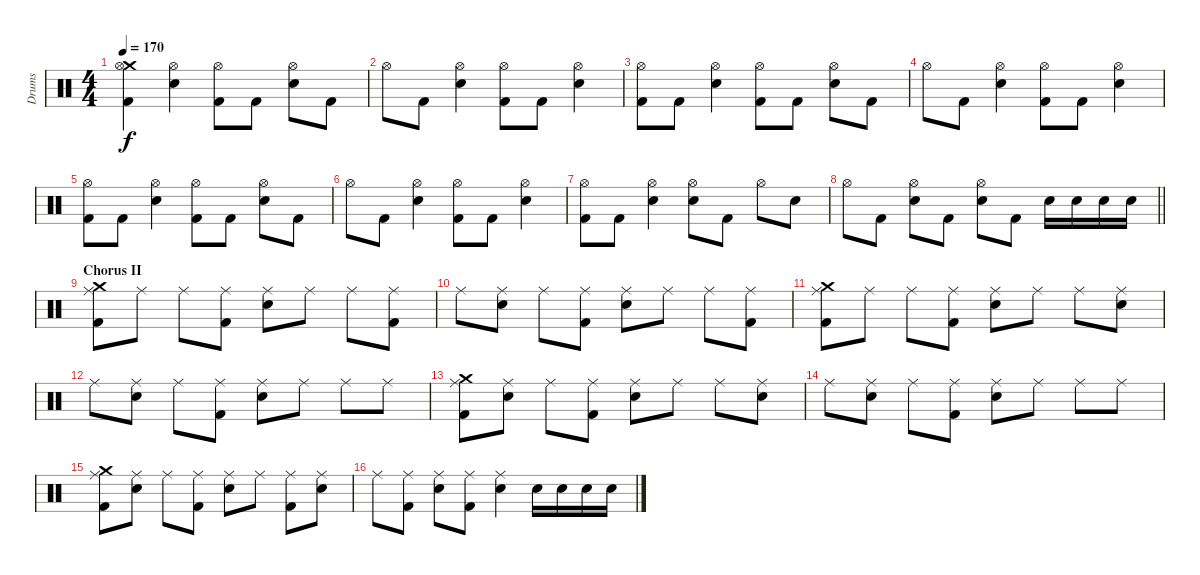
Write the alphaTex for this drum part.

\track ("Drums" "Drums") {instrument percussion}
\staff {score}
\articulation defaults
\ts (4 4)
\tempo 170
\clef neutral
\ks c
("Crash medium (hit)" "Hi-Hat (open)" "Kick (hit) 2").4{dy f} ("Hi-Hat (open)" "Electric Snare (hit)").4 ("Hi-Hat (open)" "Kick (hit) 2").8 "Kick (hit) 2".8 ("Hi-Hat (open)" "Electric Snare (hit)").8 "Kick (hit) 2".8 |
"Hi-Hat (open)".8 "Kick (hit) 2".8 ("Hi-Hat (open)" "Electric Snare (hit)").4 ("Hi-Hat (open)" "Kick (hit) 2").8 "Kick (hit) 2".8 ("Hi-Hat (open)" "Electric Snare (hit)").4 |
("Hi-Hat (open)" "Kick (hit) 2").8 "Kick (hit) 2".8 ("Hi-Hat (open)" "Electric Snare (hit)").4 ("Hi-Hat (open)" "Kick (hit) 2").8 "Kick (hit) 2".8 ("Hi-Hat (open)" "Electric Snare (hit)").8 "Kick (hit) 2".8 |
"Hi-Hat (open)".8 "Kick (hit) 2".8 ("Hi-Hat (open)" "Electric Snare (hit)").4 ("Hi-Hat (open)" "Kick (hit) 2").8 "Kick (hit) 2".8 ("Hi-Hat (open)" "Electric Snare (hit)").4 |
("Hi-Hat (open)" "Kick (hit) 2").8 "Kick (hit) 2".8 ("Hi-Hat (open)" "Electric Snare (hit)").4 ("Hi-Hat (open)" "Kick (hit) 2").8 "Kick (hit) 2".8 ("Hi-Hat (open)" "Electric Snare (hit)").8 "Kick (hit) 2".8 |
"Hi-Hat (open)".8 "Kick (hit) 2".8 ("Hi-Hat (open)" "Electric Snare (hit)").4 ("Hi-Hat (open)" "Kick (hit) 2").8 "Kick (hit) 2".8 ("Hi-Hat (open)" "Electric Snare (hit)").4 |
("Hi-Hat (open)" "Kick (hit) 2").8 "Kick (hit) 2".8 ("Hi-Hat (open)" "Electric Snare (hit)").4 ("Hi-Hat (open)" "Electric Snare (hit)").8 "Kick (hit) 2".8 "Hi-Hat (open)".8 "Electric Snare (hit)".8 |
\barLineRight lightlight "Hi-Hat (open)".8 "Kick (hit) 2".8
("Hi-Hat (open)" "Electric Snare (hit)").8 "Kick (hit) 2".8 ("Hi-Hat (open)" "Electric Snare (hit)").8 "Kick (hit) 2".8 "Electric Snare (hit)".16 "Electric Snare (hit)".16 "Electric Snare (hit)".16 "Electric Snare (hit)".16 |
\section ("" "Chorus II")
("Crash medium (hit)" "Ride (middle)" "Kick (hit) 2").8 "Ride (middle)".8 "Ride (middle)".8 ("Ride (middle)" "Kick (hit) 2").8 ("Ride (middle)" "Electric Snare (hit)").8 "Ride (middle)".8 "Ride (middle)".8 ("Ride (middle)" "Kick (hit) 2").8 |
"Ride (middle)".8 ("Ride (middle)" "Electric Snare (hit)").8 "Ride (middle)".8 ("Ride (middle)" "Kick (hit) 2").8 ("Ride (middle)" "Electric Snare (hit)").8 "Ride (middle)".8 "Ride (middle)".8 ("Ride (middle)" "Kick (hit) 2").8 |
("Crash medium (hit)" "Ride (middle)" "Kick (hit) 2").8 "Ride (middle)".8 "Ride (middle)".8 ("Ride (middle)" "Kick (hit) 2").8 ("Ride (middle)" "Electric Snare (hit)").8 "Ride (middle)".8 "Ride (middle)".8 ("Ride (middle)" "Electric Snare (hit)").8 |
"Ride (middle)".8 ("Ride (middle)" "Electric Snare (hit)").8 "Ride (middle)".8 ("Ride (middle)" "Kick (hit) 2").8 ("Ride (middle)" "Electric Snare (hit)").8 "Ride (middle)".8 "Ride (middle)".8 "Ride (middle)".8 |
("Crash medium (hit)" "Ride (middle)" "Kick (hit) 2").8 ("Ride (middle)" "Electric Snare (hit)").8 "Ride (middle)".8 ("Ride (middle)" "Kick (hit) 2").8 ("Ride (middle)" "Electric Snare (hit)").8 "Ride (middle)".8 "Ride (middle)".8 ("Ride (middle)" "Electric Snare (hit)").8 |
"Ride (middle)".8 ("Ride (middle)" "Electric Snare (hit)").8 "Ride (middle)".8 ("Ride (middle)" "Kick (hit) 2").8 ("Ride (middle)" "Electric Snare (hit)").8 "Ride (middle)".8 "Ride (middle)".8 "Ride (middle)".8 |
("Crash medium (hit)" "Ride (middle)" "Kick (hit) 2").8 ("Ride (middle)" "Electric Snare (hit)").8 "Ride (middle)".8 ("Ride (middle)" "Kick (hit) 2").8 ("Ride (middle)" "Electric Snare (hit)").8 "Ride (middle)".8 ("Ride (middle)" "Kick (hit) 2").8 ("Ride (middle)" "Electric Snare (hit)").8 |
"Ride (middle)".8 ("Ride (middle)" "Kick (hit) 2").8 ("Ride (middle)" "Electric Snare (hit)").8 ("Ride (middle)" "Kick (hit) 2").8 ("Ride (middle)" "Electric Snare (hit)").4 "Electric Snare (hit)".16 "Electric Snare (hit)".16 "Electric Snare (hit)".16 "Electric Snare (hit)".16
